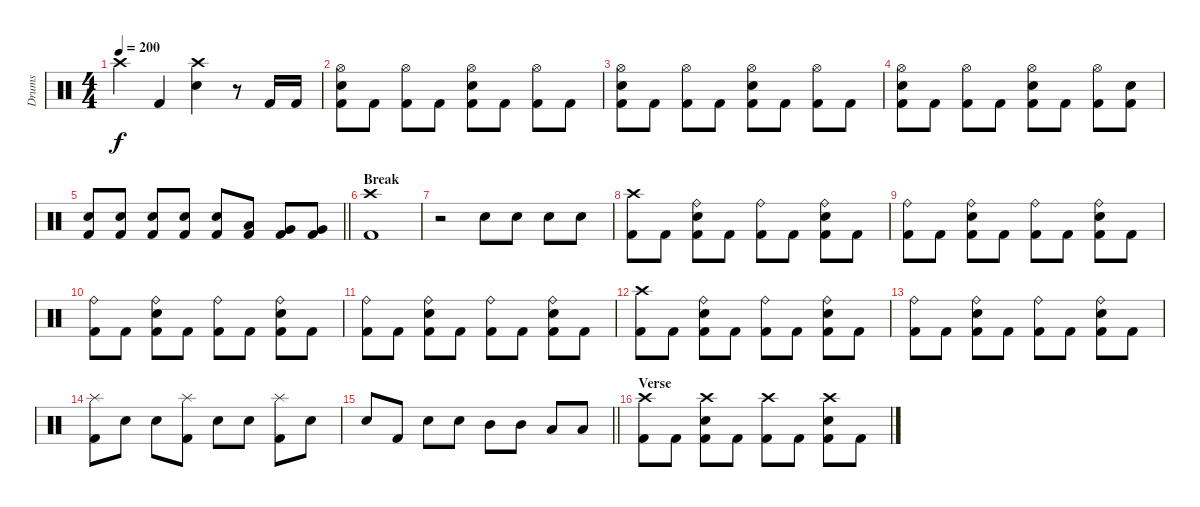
\track ("Drums" "Drums") {instrument percussion}
\staff {score}
\articulation defaults
\ts (4 4)
\tempo 200
\clef neutral
\ks c "Crash high (hit)".4{dy f} "Kick (hit) 2".4
("Crash high (hit)" "Snare (hit) 2").4 r.8 "Kick (hit) 2".16 "Kick (hit) 2".16 |
("Hi-Hat (open)" "Snare (hit) 2" "Kick (hit) 2").8 "Kick (hit) 2".8 ("Hi-Hat (open)" "Kick (hit) 2").8 "Kick (hit) 2".8 ("Hi-Hat (open)" "Snare (hit) 2" "Kick (hit) 2").8 "Kick (hit) 2".8 ("Hi-Hat (open)" "Kick (hit) 2").8 "Kick (hit) 2".8 |
("Hi-Hat (open)" "Snare (hit) 2" "Kick (hit) 2").8 "Kick (hit) 2".8 ("Hi-Hat (open)" "Kick (hit) 2").8 "Kick (hit) 2".8 ("Hi-Hat (open)" "Snare (hit) 2" "Kick (hit) 2").8 "Kick (hit) 2".8 ("Hi-Hat (open)" "Kick (hit) 2").8 "Kick (hit) 2".8 |
("Hi-Hat (open)" "Snare (hit) 2" "Kick (hit) 2").8 "Kick (hit) 2".8 ("Hi-Hat (open)" "Kick (hit) 2").8 "Kick (hit) 2".8 ("Hi-Hat (open)" "Snare (hit) 2" "Kick (hit) 2").8 "Kick (hit) 2".8 ("Hi-Hat (open)" "Kick (hit) 2").8 ("Snare (hit) 2" "Kick (hit) 2").8 |
\barLineRight lightlight
("Snare (hit) 2" "Kick (hit) 2").8 ("Snare (hit) 2" "Kick (hit) 2").8 ("Snare (hit) 2" "Kick (hit) 2").8 ("Snare (hit) 2" "Kick (hit) 2").8 ("Snare (hit) 2" "Kick (hit) 2").8 ("Low Tom (hit)" "Kick (hit) 2").8 ("Very Low Tom (hit)" "Kick (hit) 2").8 ("Very Low Tom (hit)" "Kick (hit) 2").8 |
\section ("" "Break")
("Crash high (hit)" "Kick (hit) 2").1 |
r.2 "Snare (hit) 2".8 "Snare (hit) 2".8 "Snare (hit) 2".8 "Snare (hit) 2".8 |
("Crash high (hit)" "Kick (hit) 2").8 "Kick (hit) 2".8 ("Ride (bell)" "Snare (hit) 2" "Kick (hit) 2").8 "Kick (hit) 2".8 ("Ride (bell)" "Kick (hit) 2").8 "Kick (hit) 2".8 ("Ride (bell)" "Snare (hit) 2" "Kick (hit) 2").8 "Kick (hit) 2".8 |
("Ride (bell)" "Kick (hit) 2").8 "Kick (hit) 2".8 ("Ride (bell)" "Snare (hit) 2" "Kick (hit) 2").8 "Kick (hit) 2".8 ("Ride (bell)" "Kick (hit) 2").8 "Kick (hit) 2".8 ("Ride (bell)" "Snare (hit) 2" "Kick (hit) 2").8 "Kick (hit) 2".8 |
("Ride (bell)" "Kick (hit) 2").8 "Kick (hit) 2".8 ("Ride (bell)" "Snare (hit) 2" "Kick (hit) 2").8 "Kick (hit) 2".8 ("Ride (bell)" "Kick (hit) 2").8 "Kick (hit) 2".8 ("Ride (bell)" "Snare (hit) 2" "Kick (hit) 2").8 "Kick (hit) 2".8 |
("Ride (bell)" "Kick (hit) 2").8 "Kick (hit) 2".8 ("Ride (bell)" "Snare (hit) 2" "Kick (hit) 2").8 "Kick (hit) 2".8 ("Ride (bell)" "Kick (hit) 2").8 "Kick (hit) 2".8 ("Ride (bell)" "Snare (hit) 2" "Kick (hit) 2").8 "Kick (hit) 2".8 |
("Crash high (hit)" "Kick (hit) 2").8 "Kick (hit) 2".8 ("Ride (bell)" "Snare (hit) 2" "Kick (hit) 2").8 "Kick (hit) 2".8 ("Ride (bell)" "Kick (hit) 2").8 "Kick (hit) 2".8 ("Ride (bell)" "Snare (hit) 2" "Kick (hit) 2").8 "Kick (hit) 2".8 |
("Ride (bell)" "Kick (hit) 2").8 "Kick (hit) 2".8 ("Ride (bell)" "Snare (hit) 2" "Kick (hit) 2").8 "Kick (hit) 2".8 ("Ride (bell)" "Kick (hit) 2").8 "Kick (hit) 2".8 ("Ride (bell)" "Snare (hit) 2" "Kick (hit) 2").8 "Kick (hit) 2".8 |
("Splash (hit)" "Kick (hit) 2").8 "Snare (hit) 2".8 "Snare (hit) 2".8 ("Splash (hit)" "Kick (hit) 2").8 "Snare (hit) 2".8 "Snare (hit) 2".8 ("Splash (hit)" "Kick (hit) 2").8 "Snare (hit) 2".8 |
\barLineRight lightlight "Snare (hit) 2".8 "Kick (hit) 2".8 "Snare (hit) 2".8 "Snare (hit) 2".8 "Mid Tom (hit)".8 "Mid Tom (hit)".8 "Low Tom (hit)".8 "Low Tom (hit)".8
|
\section ("" "Verse")
("Crash high (hit)" "Kick (hit) 2").8 "Kick (hit) 2".8 ("Crash high (hit)" "Snare (hit) 2" "Kick (hit) 2").8 "Kick (hit) 2".8 ("Crash high (hit)" "Kick (hit) 2").8 "Kick (hit) 2".8 ("Crash high (hit)" "Snare (hit) 2" "Kick (hit) 2").8 "Kick (hit) 2".8
